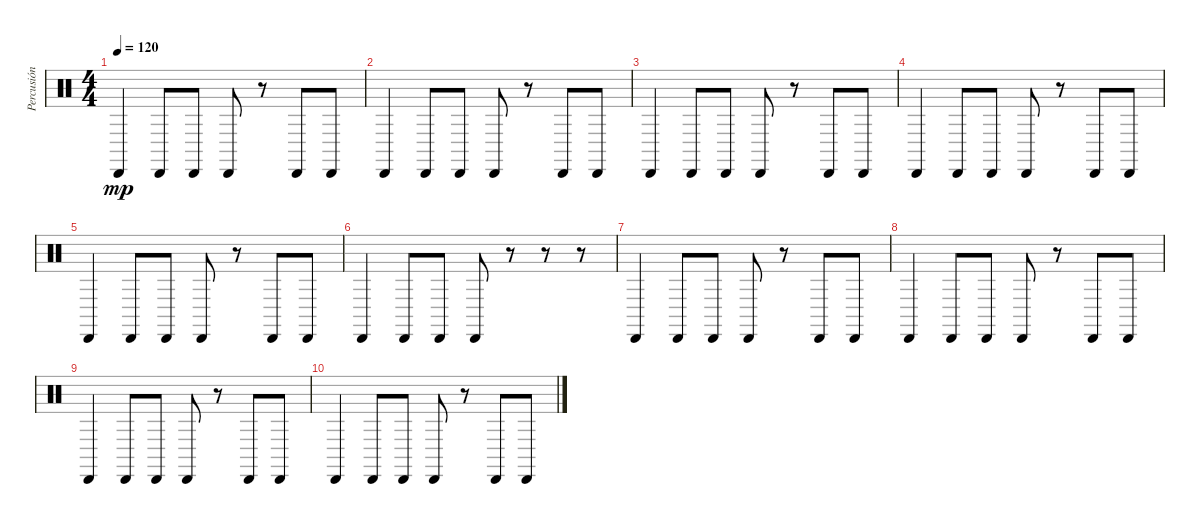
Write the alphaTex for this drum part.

\track ("Percusión" "Percusión") {instrument percussion}
\staff {score}
\articulation defaults
\ts (4 4)
\tempo 120
\clef neutral
\ks c "Cabasa (hit)".4{dy mp} "Cabasa (hit)".8 "Cabasa (hit)".8 "Cabasa (hit)".8
r.8 "Cabasa (hit)".8 "Cabasa (hit)".8 |
"Cabasa (hit)".4 "Cabasa (hit)".8 "Cabasa (hit)".8 "Cabasa (hit)".8 r.8 "Cabasa (hit)".8 "Cabasa (hit)".8 |
"Cabasa (hit)".4 "Cabasa (hit)".8 "Cabasa (hit)".8 "Cabasa (hit)".8 r.8 "Cabasa (hit)".8 "Cabasa (hit)".8 |
"Cabasa (hit)".4 "Cabasa (hit)".8 "Cabasa (hit)".8 "Cabasa (hit)".8 r.8 "Cabasa (hit)".8 "Cabasa (hit)".8 |
"Cabasa (hit)".4 "Cabasa (hit)".8 "Cabasa (hit)".8 "Cabasa (hit)".8 r.8 "Cabasa (hit)".8 "Cabasa (hit)".8 |
"Cabasa (hit)".4 "Cabasa (hit)".8 "Cabasa (hit)".8 "Cabasa (hit)".8 r.8 r.8 r.8 |
"Cabasa (hit)".4 "Cabasa (hit)".8 "Cabasa (hit)".8 "Cabasa (hit)".8 r.8 "Cabasa (hit)".8 "Cabasa (hit)".8 |
"Cabasa (hit)".4 "Cabasa (hit)".8 "Cabasa (hit)".8 "Cabasa (hit)".8 r.8 "Cabasa (hit)".8 "Cabasa (hit)".8 |
"Cabasa (hit)".4 "Cabasa (hit)".8 "Cabasa (hit)".8 "Cabasa (hit)".8 r.8 "Cabasa (hit)".8 "Cabasa (hit)".8 |
"Cabasa (hit)".4 "Cabasa (hit)".8 "Cabasa (hit)".8 "Cabasa (hit)".8 r.8 "Cabasa (hit)".8 "Cabasa (hit)".8
